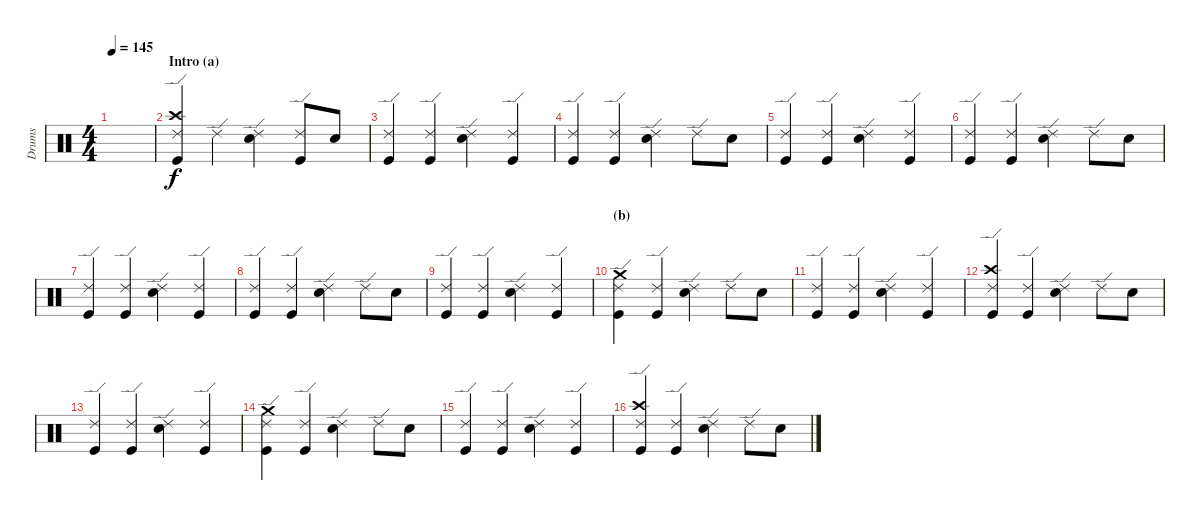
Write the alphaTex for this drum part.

\track ("Drums" "Drums") {instrument percussion}
\staff {score}
\articulation defaults
\ts (4 4)
\tempo 145
\clef neutral
\ks c
|
\section ("" "Intro (a)")
("Ride (edge) 2" "Crash high (hit)" "Kick (hit)").4 "Ride (edge) 2".4 ("Ride (edge) 2" "Electric Snare (hit)").4 ("Ride (edge) 2" "Kick (hit)").8 "Electric Snare (hit)".8 |
("Ride (edge) 2" "Kick (hit)").4 ("Ride (edge) 2" "Kick (hit)").4 ("Ride (edge) 2" "Electric Snare (hit)").4 ("Ride (edge) 2" "Kick (hit)").4 |
("Ride (edge) 2" "Kick (hit)").4 ("Ride (edge) 2" "Kick (hit)").4 ("Ride (edge) 2" "Electric Snare (hit)").4 "Ride (edge) 2".8 "Electric Snare (hit)".8 |
("Ride (edge) 2" "Kick (hit)").4 ("Ride (edge) 2" "Kick (hit)").4 ("Ride (edge) 2" "Electric Snare (hit)").4 ("Ride (edge) 2" "Kick (hit)").4 |
("Ride (edge) 2" "Kick (hit)").4 ("Ride (edge) 2" "Kick (hit)").4 ("Ride (edge) 2" "Electric Snare (hit)").4 "Ride (edge) 2".8 "Electric Snare (hit)".8 |
("Ride (edge) 2" "Kick (hit)").4 ("Ride (edge) 2" "Kick (hit)").4 ("Ride (edge) 2" "Electric Snare (hit)").4 ("Ride (edge) 2" "Kick (hit)").4 |
("Ride (edge) 2" "Kick (hit)").4 ("Ride (edge) 2" "Kick (hit)").4 ("Ride (edge) 2" "Electric Snare (hit)").4 "Ride (edge) 2".8 "Electric Snare (hit)".8 |
("Ride (edge) 2" "Kick (hit)").4 ("Ride (edge) 2" "Kick (hit)").4 ("Ride (edge) 2" "Electric Snare (hit)").4 ("Ride (edge) 2" "Kick (hit)").4 |
\section ("" "(b)")
("Ride (edge) 2" "Crash medium (hit)" "Kick (hit)").4 ("Ride (edge) 2" "Kick (hit)").4 ("Ride (edge) 2" "Electric Snare (hit)").4 "Ride (edge) 2".8 "Electric Snare (hit)".8 |
("Ride (edge) 2" "Kick (hit)").4 ("Ride (edge) 2" "Kick (hit)").4 ("Ride (edge) 2" "Electric Snare (hit)").4 ("Ride (edge) 2" "Kick (hit)").4 |
("Ride (edge) 2" "Crash high (hit)" "Kick (hit)").4 ("Ride (edge) 2" "Kick (hit)").4 ("Ride (edge) 2" "Electric Snare (hit)").4 "Ride (edge) 2".8 "Electric Snare (hit)".8 |
("Ride (edge) 2" "Kick (hit)").4 ("Ride (edge) 2" "Kick (hit)").4 ("Ride (edge) 2" "Electric Snare (hit)").4 ("Ride (edge) 2" "Kick (hit)").4 |
("Ride (edge) 2" "Crash medium (hit)" "Kick (hit)").4 ("Ride (edge) 2" "Kick (hit)").4 ("Ride (edge) 2" "Electric Snare (hit)").4 "Ride (edge) 2".8 "Electric Snare (hit)".8 |
("Ride (edge) 2" "Kick (hit)").4 ("Ride (edge) 2" "Kick (hit)").4 ("Ride (edge) 2" "Electric Snare (hit)").4 ("Ride (edge) 2" "Kick (hit)").4 |
("Ride (edge) 2" "Crash high (hit)" "Kick (hit)").4 ("Ride (edge) 2" "Kick (hit)").4 ("Ride (edge) 2" "Electric Snare (hit)").4 "Ride (edge) 2".8 "Electric Snare (hit)".8
